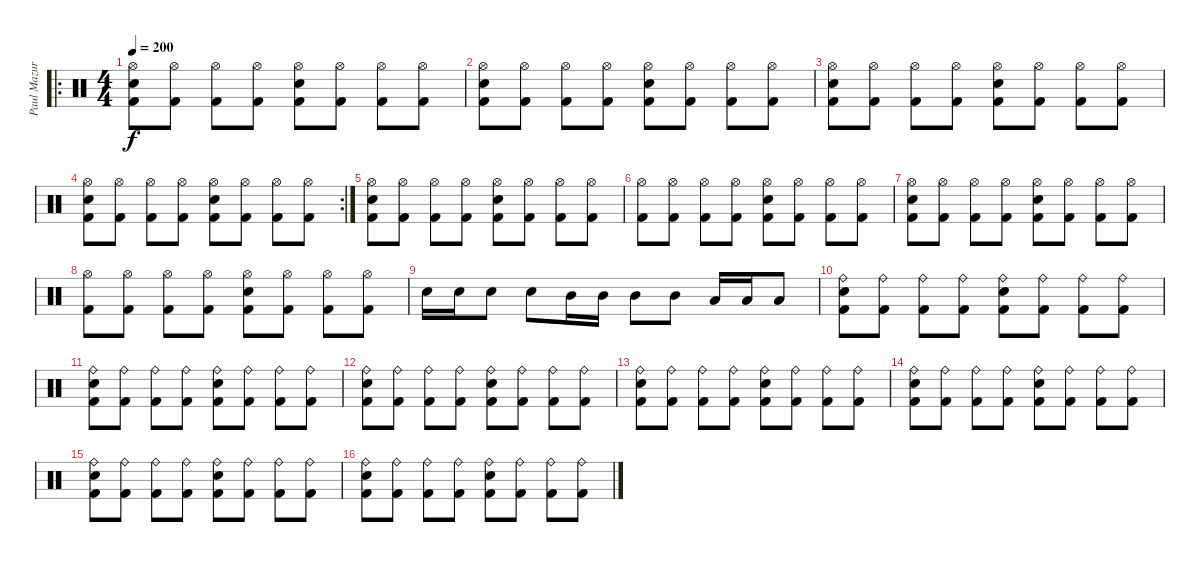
\track ("Paul Mazurkiewicz" "Paul Mazur") {instrument percussion}
\staff {score}
\articulation defaults
\ro
\ts (4 4)
\tempo 200
\clef neutral
\ks c
("Hi-Hat (open)" "Snare (hit) 2" "Kick (hit) 2").8{dy f} ("Hi-Hat (open)" "Kick (hit) 2").8 ("Hi-Hat (open)" "Kick (hit) 2").8 ("Hi-Hat (open)" "Kick (hit) 2").8 ("Hi-Hat (open)" "Snare (hit) 2" "Kick (hit) 2").8 ("Hi-Hat (open)" "Kick (hit) 2").8 ("Hi-Hat (open)" "Kick (hit) 2").8 ("Hi-Hat (open)" "Kick (hit) 2").8 |
("Hi-Hat (open)" "Snare (hit) 2" "Kick (hit) 2").8 ("Hi-Hat (open)" "Kick (hit) 2").8 ("Hi-Hat (open)" "Kick (hit) 2").8 ("Hi-Hat (open)" "Kick (hit) 2").8 ("Hi-Hat (open)" "Snare (hit) 2" "Kick (hit) 2").8 ("Hi-Hat (open)" "Kick (hit) 2").8 ("Hi-Hat (open)" "Kick (hit) 2").8 ("Hi-Hat (open)" "Kick (hit) 2").8 |
("Hi-Hat (open)" "Snare (hit) 2" "Kick (hit) 2").8 ("Hi-Hat (open)" "Kick (hit) 2").8 ("Hi-Hat (open)" "Kick (hit) 2").8 ("Hi-Hat (open)" "Kick (hit) 2").8 ("Hi-Hat (open)" "Snare (hit) 2" "Kick (hit) 2").8 ("Hi-Hat (open)" "Kick (hit) 2").8 ("Hi-Hat (open)" "Kick (hit) 2").8 ("Hi-Hat (open)" "Kick (hit) 2").8 |
\rc 2
("Hi-Hat (open)" "Snare (hit) 2" "Kick (hit) 2").8 ("Hi-Hat (open)" "Kick (hit) 2").8 ("Hi-Hat (open)" "Kick (hit) 2").8 ("Hi-Hat (open)" "Kick (hit) 2").8 ("Hi-Hat (open)" "Snare (hit) 2" "Kick (hit) 2").8 ("Hi-Hat (open)" "Kick (hit) 2").8 ("Hi-Hat (open)" "Kick (hit) 2").8 ("Hi-Hat (open)" "Kick (hit) 2").8 |
("Hi-Hat (open)" "Snare (hit) 2" "Kick (hit) 2").8 ("Hi-Hat (open)" "Kick (hit) 2").8 ("Hi-Hat (open)" "Kick (hit) 2").8 ("Hi-Hat (open)" "Kick (hit) 2").8 ("Hi-Hat (open)" "Snare (hit) 2" "Kick (hit) 2").8 ("Hi-Hat (open)" "Kick (hit) 2").8 ("Hi-Hat (open)" "Kick (hit) 2").8 ("Hi-Hat (open)" "Kick (hit) 2").8 |
("Hi-Hat (open)" "Kick (hit) 2").8 ("Hi-Hat (open)" "Kick (hit) 2").8 ("Hi-Hat (open)" "Kick (hit) 2").8 ("Hi-Hat (open)" "Kick (hit) 2").8 ("Hi-Hat (open)" "Snare (hit) 2" "Kick (hit) 2").8 ("Hi-Hat (open)" "Kick (hit) 2").8 ("Hi-Hat (open)" "Kick (hit) 2").8 ("Hi-Hat (open)" "Kick (hit) 2").8 |
("Hi-Hat (open)" "Snare (hit) 2" "Kick (hit) 2").8 ("Hi-Hat (open)" "Kick (hit) 2").8 ("Hi-Hat (open)" "Kick (hit) 2").8 ("Hi-Hat (open)" "Kick (hit) 2").8 ("Hi-Hat (open)" "Snare (hit) 2" "Kick (hit) 2").8 ("Hi-Hat (open)" "Kick (hit) 2").8 ("Hi-Hat (open)" "Kick (hit) 2").8 ("Hi-Hat (open)" "Kick (hit) 2").8 |
("Hi-Hat (open)" "Kick (hit) 2").8 ("Hi-Hat (open)" "Kick (hit) 2").8 ("Hi-Hat (open)" "Kick (hit) 2").8 ("Hi-Hat (open)" "Kick (hit) 2").8 ("Hi-Hat (open)" "Snare (hit) 2" "Kick (hit) 2").8 ("Hi-Hat (open)" "Kick (hit) 2").8 ("Hi-Hat (open)" "Kick (hit) 2").8 ("Hi-Hat (open)" "Kick (hit) 2").8 |
"Snare (hit) 2".16 "Snare (hit) 2".16 "Snare (hit) 2".8 "Snare (hit) 2".8 "Mid Tom (hit)".16 "Mid Tom (hit)".16 "Mid Tom (hit)".8 "Mid Tom (hit)".8 "Low Tom (hit)".16 "Low Tom (hit)".16 "Low Tom (hit)".8 |
("Ride (bell)" "Snare (hit) 2" "Kick (hit) 2").8 ("Ride (bell)" "Kick (hit) 2").8 ("Ride (bell)" "Kick (hit) 2").8 ("Ride (bell)" "Kick (hit) 2").8 ("Ride (bell)" "Snare (hit) 2" "Kick (hit) 2").8 ("Ride (bell)" "Kick (hit) 2").8 ("Ride (bell)" "Kick (hit) 2").8 ("Ride (bell)" "Kick (hit) 2").8 |
("Ride (bell)" "Snare (hit) 2" "Kick (hit) 2").8 ("Ride (bell)" "Kick (hit) 2").8 ("Ride (bell)" "Kick (hit) 2").8 ("Ride (bell)" "Kick (hit) 2").8 ("Ride (bell)" "Snare (hit) 2" "Kick (hit) 2").8 ("Ride (bell)" "Kick (hit) 2").8 ("Ride (bell)" "Kick (hit) 2").8 ("Ride (bell)" "Kick (hit) 2").8 |
("Ride (bell)" "Snare (hit) 2" "Kick (hit) 2").8 ("Ride (bell)" "Kick (hit) 2").8 ("Ride (bell)" "Kick (hit) 2").8 ("Ride (bell)" "Kick (hit) 2").8 ("Ride (bell)" "Snare (hit) 2" "Kick (hit) 2").8 ("Ride (bell)" "Kick (hit) 2").8 ("Ride (bell)" "Kick (hit) 2").8 ("Ride (bell)" "Kick (hit) 2").8 |
("Ride (bell)" "Snare (hit) 2" "Kick (hit) 2").8 ("Ride (bell)" "Kick (hit) 2").8 ("Ride (bell)" "Kick (hit) 2").8 ("Ride (bell)" "Kick (hit) 2").8 ("Ride (bell)" "Snare (hit) 2" "Kick (hit) 2").8 ("Ride (bell)" "Kick (hit) 2").8 ("Ride (bell)" "Kick (hit) 2").8 ("Ride (bell)" "Kick (hit) 2").8 |
("Ride (bell)" "Snare (hit) 2" "Kick (hit) 2").8 ("Ride (bell)" "Kick (hit) 2").8 ("Ride (bell)" "Kick (hit) 2").8 ("Ride (bell)" "Kick (hit) 2").8 ("Ride (bell)" "Snare (hit) 2" "Kick (hit) 2").8 ("Ride (bell)" "Kick (hit) 2").8 ("Ride (bell)" "Kick (hit) 2").8 ("Ride (bell)" "Kick (hit) 2").8 |
("Ride (bell)" "Snare (hit) 2" "Kick (hit) 2").8 ("Ride (bell)" "Kick (hit) 2").8 ("Ride (bell)" "Kick (hit) 2").8 ("Ride (bell)" "Kick (hit) 2").8 ("Ride (bell)" "Snare (hit) 2" "Kick (hit) 2").8 ("Ride (bell)" "Kick (hit) 2").8 ("Ride (bell)" "Kick (hit) 2").8 ("Ride (bell)" "Kick (hit) 2").8 |
("Ride (bell)" "Snare (hit) 2" "Kick (hit) 2").8 ("Ride (bell)" "Kick (hit) 2").8 ("Ride (bell)" "Kick (hit) 2").8 ("Ride (bell)" "Kick (hit) 2").8 ("Ride (bell)" "Snare (hit) 2" "Kick (hit) 2").8 ("Ride (bell)" "Kick (hit) 2").8 ("Ride (bell)" "Kick (hit) 2").8 ("Ride (bell)" "Kick (hit) 2").8
